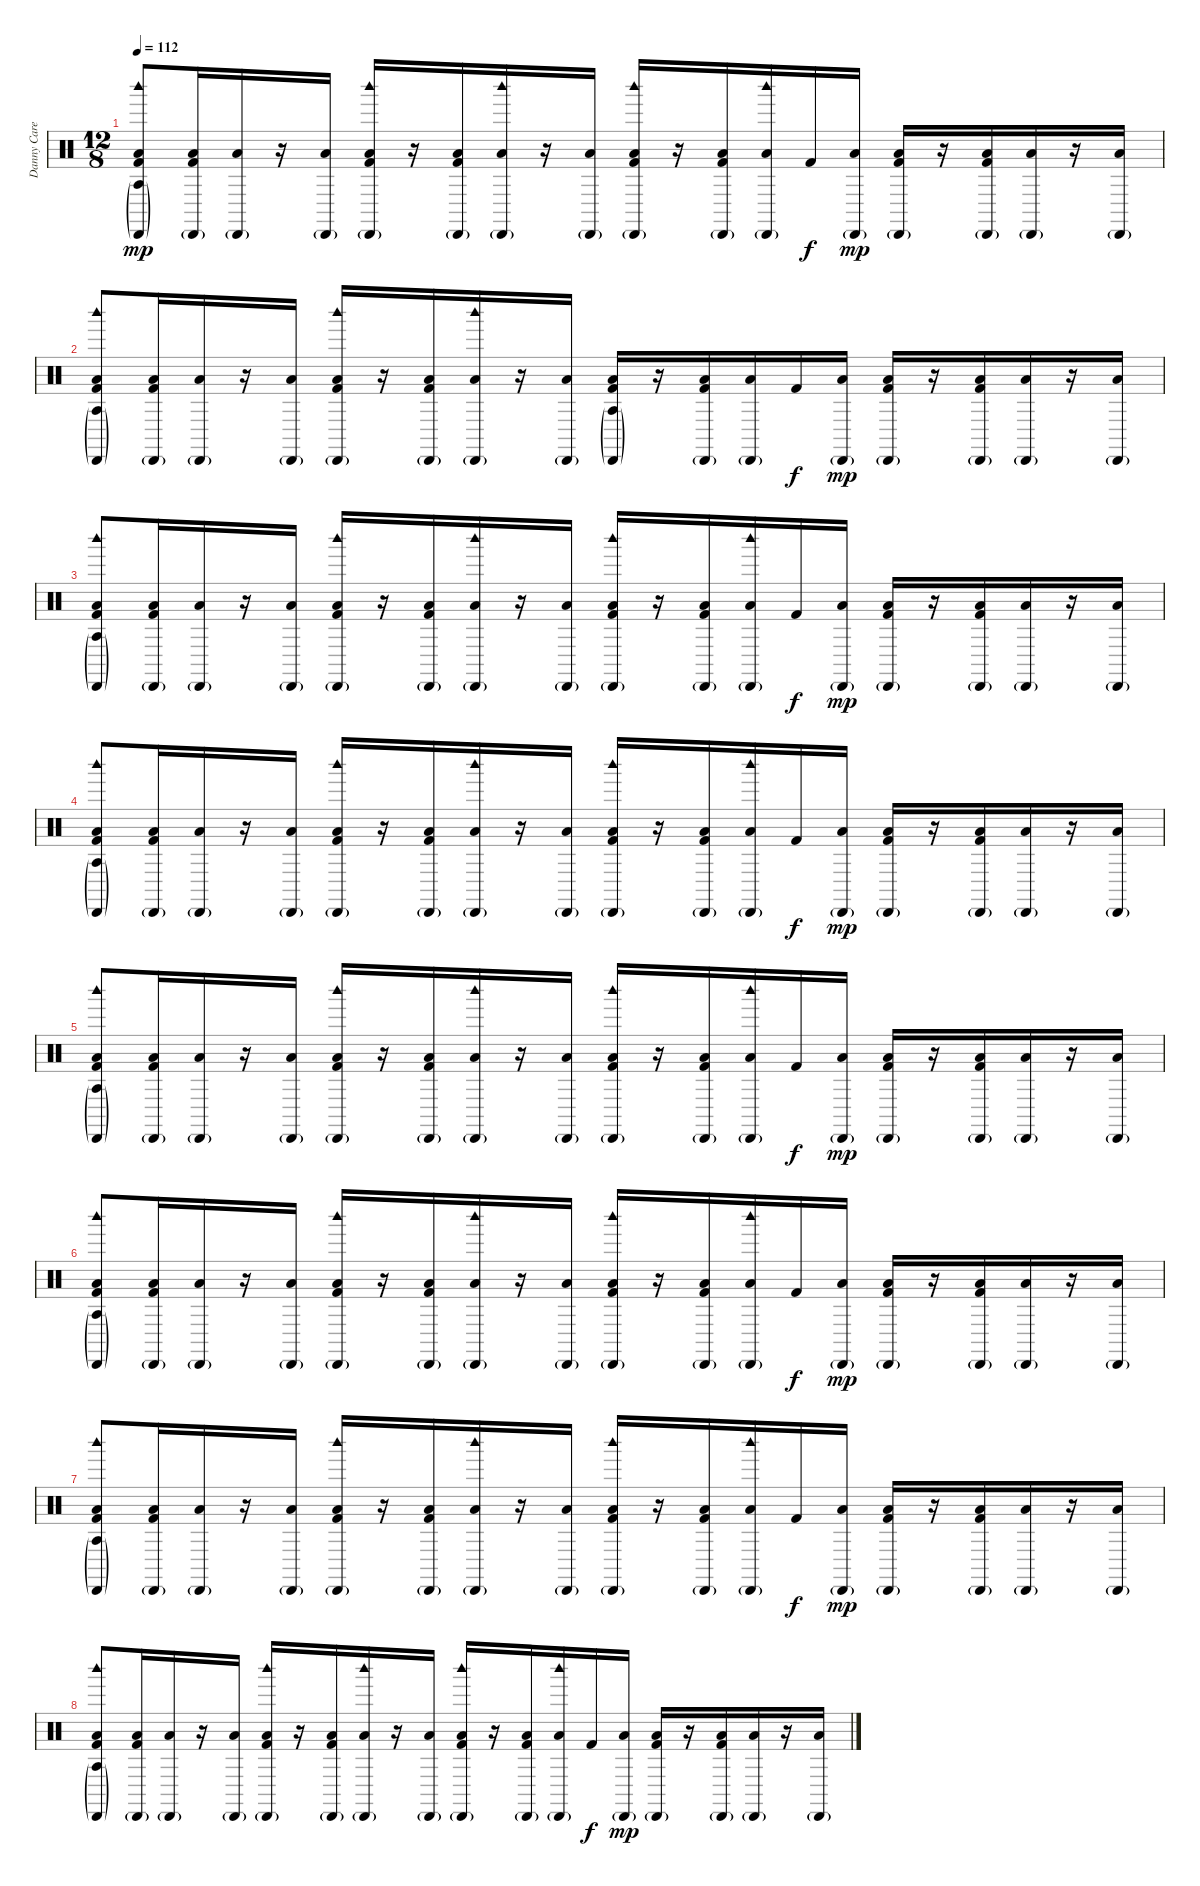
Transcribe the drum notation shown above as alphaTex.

\track ("Danny Carey" "Danny Care") {instrument percussion}
\staff {score}
\articulation defaults
\ts (12 8)
\tempo 112
\clef neutral
\ks c
("Low Floor Tom (hit)" "Agogo tow (hit)"{g} "Cabasa (hit)"{g} "Woodblock high (hit)" "Kick (hit) 2").8{dy mp} ("Low Floor Tom (hit)" "Cabasa (hit)"{g} "Kick (hit) 2").16 ("Low Floor Tom (hit)" "Cabasa (hit)"{g}).16 r.16 ("Low Floor Tom (hit)" "Cabasa (hit)"{g}).16 ("Low Floor Tom (hit)" "Cabasa (hit)"{g} "Woodblock high (hit)" "Kick (hit) 2").16 r.16 ("Low Floor Tom (hit)" "Cabasa (hit)"{g} "Kick (hit) 2").16 ("Low Floor Tom (hit)" "Cabasa (hit)"{g} "Woodblock high (hit)").16 r.16 ("Low Floor Tom (hit)" "Cabasa (hit)"{g}).16 ("Low Floor Tom (hit)" "Cabasa (hit)"{g} "Woodblock high (hit)" "Kick (hit) 2").16 r.16 ("Low Floor Tom (hit)" "Cabasa (hit)"{g} "Kick (hit) 2").16 ("Low Floor Tom (hit)" "Cabasa (hit)"{g} "Woodblock high (hit)").16 "Kick (hit) 2".16{dy f} ("Low Floor Tom (hit)" "Cabasa (hit)"{g}).16{dy mp} ("Low Floor Tom (hit)" "Cabasa (hit)"{g} "Kick (hit) 2").16 r.16 ("Low Floor Tom (hit)" "Cabasa (hit)"{g} "Kick (hit) 2").16 ("Low Floor Tom (hit)" "Cabasa (hit)"{g}).16 r.16 ("Low Floor Tom (hit)" "Cabasa (hit)"{g}).16 |
("Low Floor Tom (hit)" "Agogo tow (hit)"{g} "Cabasa (hit)"{g} "Woodblock high (hit)" "Kick (hit) 2").8 ("Low Floor Tom (hit)" "Cabasa (hit)"{g} "Kick (hit) 2").16 ("Low Floor Tom (hit)" "Cabasa (hit)"{g}).16 r.16 ("Low Floor Tom (hit)" "Cabasa (hit)"{g}).16 ("Low Floor Tom (hit)" "Cabasa (hit)"{g} "Woodblock high (hit)" "Kick (hit) 2").16 r.16 ("Low Floor Tom (hit)" "Cabasa (hit)"{g} "Kick (hit) 2").16 ("Low Floor Tom (hit)" "Cabasa (hit)"{g} "Woodblock high (hit)").16 r.16 ("Low Floor Tom (hit)" "Cabasa (hit)"{g}).16 ("Low Floor Tom (hit)" "Agogo tow (hit)"{g} "Cabasa (hit)"{g} "Kick (hit) 2").16 r.16 ("Low Floor Tom (hit)" "Cabasa (hit)"{g} "Kick (hit) 2").16 ("Low Floor Tom (hit)" "Cabasa (hit)"{g}).16 "Kick (hit) 2".16{dy f} ("Low Floor Tom (hit)" "Cabasa (hit)"{g}).16{dy mp} ("Low Floor Tom (hit)" "Cabasa (hit)"{g} "Kick (hit) 2").16 r.16 ("Low Floor Tom (hit)" "Cabasa (hit)"{g} "Kick (hit) 2").16 ("Low Floor Tom (hit)" "Cabasa (hit)"{g}).16 r.16 ("Low Floor Tom (hit)" "Cabasa (hit)"{g}).16 |
("Low Floor Tom (hit)" "Agogo tow (hit)"{g} "Cabasa (hit)"{g} "Woodblock high (hit)" "Kick (hit) 2").8 ("Low Floor Tom (hit)" "Cabasa (hit)"{g} "Kick (hit) 2").16 ("Low Floor Tom (hit)" "Cabasa (hit)"{g}).16 r.16 ("Low Floor Tom (hit)" "Cabasa (hit)"{g}).16 ("Low Floor Tom (hit)" "Cabasa (hit)"{g} "Woodblock high (hit)" "Kick (hit) 2").16 r.16 ("Low Floor Tom (hit)" "Cabasa (hit)"{g} "Kick (hit) 2").16 ("Low Floor Tom (hit)" "Cabasa (hit)"{g} "Woodblock high (hit)").16 r.16 ("Low Floor Tom (hit)" "Cabasa (hit)"{g}).16 ("Low Floor Tom (hit)" "Cabasa (hit)"{g} "Woodblock high (hit)" "Kick (hit) 2").16 r.16 ("Low Floor Tom (hit)" "Cabasa (hit)"{g} "Kick (hit) 2").16 ("Low Floor Tom (hit)" "Cabasa (hit)"{g} "Woodblock high (hit)").16 "Kick (hit) 2".16{dy f} ("Low Floor Tom (hit)" "Cabasa (hit)"{g}).16{dy mp} ("Low Floor Tom (hit)" "Cabasa (hit)"{g} "Kick (hit) 2").16 r.16 ("Low Floor Tom (hit)" "Cabasa (hit)"{g} "Kick (hit) 2").16 ("Low Floor Tom (hit)" "Cabasa (hit)"{g}).16 r.16 ("Low Floor Tom (hit)" "Cabasa (hit)"{g}).16 |
("Low Floor Tom (hit)" "Agogo tow (hit)"{g} "Cabasa (hit)"{g} "Woodblock high (hit)" "Kick (hit) 2").8 ("Low Floor Tom (hit)" "Cabasa (hit)"{g} "Kick (hit) 2").16 ("Low Floor Tom (hit)" "Cabasa (hit)"{g}).16 r.16 ("Low Floor Tom (hit)" "Cabasa (hit)"{g}).16 ("Low Floor Tom (hit)" "Cabasa (hit)"{g} "Woodblock high (hit)" "Kick (hit) 2").16 r.16 ("Low Floor Tom (hit)" "Cabasa (hit)"{g} "Kick (hit) 2").16 ("Low Floor Tom (hit)" "Cabasa (hit)"{g} "Woodblock high (hit)").16 r.16 ("Low Floor Tom (hit)" "Cabasa (hit)"{g}).16 ("Low Floor Tom (hit)" "Cabasa (hit)"{g} "Woodblock high (hit)" "Kick (hit) 2").16 r.16 ("Low Floor Tom (hit)" "Cabasa (hit)"{g} "Kick (hit) 2").16 ("Low Floor Tom (hit)" "Cabasa (hit)"{g} "Woodblock high (hit)").16 "Kick (hit) 2".16{dy f} ("Low Floor Tom (hit)" "Cabasa (hit)"{g}).16{dy mp} ("Low Floor Tom (hit)" "Cabasa (hit)"{g} "Kick (hit) 2").16 r.16 ("Low Floor Tom (hit)" "Cabasa (hit)"{g} "Kick (hit) 2").16 ("Low Floor Tom (hit)" "Cabasa (hit)"{g}).16 r.16 ("Low Floor Tom (hit)" "Cabasa (hit)"{g}).16 |
("Low Floor Tom (hit)" "Agogo tow (hit)"{g} "Cabasa (hit)"{g} "Woodblock high (hit)" "Kick (hit) 2").8 ("Low Floor Tom (hit)" "Cabasa (hit)"{g} "Kick (hit) 2").16 ("Low Floor Tom (hit)" "Cabasa (hit)"{g}).16 r.16 ("Low Floor Tom (hit)" "Cabasa (hit)"{g}).16 ("Low Floor Tom (hit)" "Cabasa (hit)"{g} "Woodblock high (hit)" "Kick (hit) 2").16 r.16 ("Low Floor Tom (hit)" "Cabasa (hit)"{g} "Kick (hit) 2").16 ("Low Floor Tom (hit)" "Cabasa (hit)"{g} "Woodblock high (hit)").16 r.16 ("Low Floor Tom (hit)" "Cabasa (hit)"{g}).16 ("Low Floor Tom (hit)" "Cabasa (hit)"{g} "Woodblock high (hit)" "Kick (hit) 2").16 r.16 ("Low Floor Tom (hit)" "Cabasa (hit)"{g} "Kick (hit) 2").16 ("Low Floor Tom (hit)" "Cabasa (hit)"{g} "Woodblock high (hit)").16 "Kick (hit) 2".16{dy f} ("Low Floor Tom (hit)" "Cabasa (hit)"{g}).16{dy mp} ("Low Floor Tom (hit)" "Cabasa (hit)"{g} "Kick (hit) 2").16 r.16 ("Low Floor Tom (hit)" "Cabasa (hit)"{g} "Kick (hit) 2").16 ("Low Floor Tom (hit)" "Cabasa (hit)"{g}).16 r.16 ("Low Floor Tom (hit)" "Cabasa (hit)"{g}).16 |
("Low Floor Tom (hit)" "Agogo tow (hit)"{g} "Cabasa (hit)"{g} "Woodblock high (hit)" "Kick (hit) 2").8 ("Low Floor Tom (hit)" "Cabasa (hit)"{g} "Kick (hit) 2").16 ("Low Floor Tom (hit)" "Cabasa (hit)"{g}).16 r.16 ("Low Floor Tom (hit)" "Cabasa (hit)"{g}).16 ("Low Floor Tom (hit)" "Cabasa (hit)"{g} "Woodblock high (hit)" "Kick (hit) 2").16 r.16 ("Low Floor Tom (hit)" "Cabasa (hit)"{g} "Kick (hit) 2").16 ("Low Floor Tom (hit)" "Cabasa (hit)"{g} "Woodblock high (hit)").16 r.16 ("Low Floor Tom (hit)" "Cabasa (hit)"{g}).16 ("Low Floor Tom (hit)" "Cabasa (hit)"{g} "Woodblock high (hit)" "Kick (hit) 2").16 r.16 ("Low Floor Tom (hit)" "Cabasa (hit)"{g} "Kick (hit) 2").16 ("Low Floor Tom (hit)" "Cabasa (hit)"{g} "Woodblock high (hit)").16 "Kick (hit) 2".16{dy f} ("Low Floor Tom (hit)" "Cabasa (hit)"{g}).16{dy mp} ("Low Floor Tom (hit)" "Cabasa (hit)"{g} "Kick (hit) 2").16 r.16 ("Low Floor Tom (hit)" "Cabasa (hit)"{g} "Kick (hit) 2").16 ("Low Floor Tom (hit)" "Cabasa (hit)"{g}).16 r.16 ("Low Floor Tom (hit)" "Cabasa (hit)"{g}).16 |
("Low Floor Tom (hit)" "Agogo tow (hit)"{g} "Cabasa (hit)"{g} "Woodblock high (hit)" "Kick (hit) 2").8 ("Low Floor Tom (hit)" "Cabasa (hit)"{g} "Kick (hit) 2").16 ("Low Floor Tom (hit)" "Cabasa (hit)"{g}).16 r.16 ("Low Floor Tom (hit)" "Cabasa (hit)"{g}).16 ("Low Floor Tom (hit)" "Cabasa (hit)"{g} "Woodblock high (hit)" "Kick (hit) 2").16 r.16 ("Low Floor Tom (hit)" "Cabasa (hit)"{g} "Kick (hit) 2").16 ("Low Floor Tom (hit)" "Cabasa (hit)"{g} "Woodblock high (hit)").16 r.16 ("Low Floor Tom (hit)" "Cabasa (hit)"{g}).16 ("Low Floor Tom (hit)" "Cabasa (hit)"{g} "Woodblock high (hit)" "Kick (hit) 2").16 r.16 ("Low Floor Tom (hit)" "Cabasa (hit)"{g} "Kick (hit) 2").16 ("Low Floor Tom (hit)" "Cabasa (hit)"{g} "Woodblock high (hit)").16 "Kick (hit) 2".16{dy f} ("Low Floor Tom (hit)" "Cabasa (hit)"{g}).16{dy mp} ("Low Floor Tom (hit)" "Cabasa (hit)"{g} "Kick (hit) 2").16 r.16 ("Low Floor Tom (hit)" "Cabasa (hit)"{g} "Kick (hit) 2").16 ("Low Floor Tom (hit)" "Cabasa (hit)"{g}).16 r.16 ("Low Floor Tom (hit)" "Cabasa (hit)"{g}).16 |
("Low Floor Tom (hit)" "Agogo tow (hit)"{g} "Cabasa (hit)"{g} "Woodblock high (hit)" "Kick (hit) 2").8 ("Low Floor Tom (hit)" "Cabasa (hit)"{g} "Kick (hit) 2").16 ("Low Floor Tom (hit)" "Cabasa (hit)"{g}).16 r.16 ("Low Floor Tom (hit)" "Cabasa (hit)"{g}).16 ("Low Floor Tom (hit)" "Cabasa (hit)"{g} "Woodblock high (hit)" "Kick (hit) 2").16 r.16 ("Low Floor Tom (hit)" "Cabasa (hit)"{g} "Kick (hit) 2").16 ("Low Floor Tom (hit)" "Cabasa (hit)"{g} "Woodblock high (hit)").16 r.16 ("Low Floor Tom (hit)" "Cabasa (hit)"{g}).16 ("Low Floor Tom (hit)" "Cabasa (hit)"{g} "Woodblock high (hit)" "Kick (hit) 2").16 r.16 ("Low Floor Tom (hit)" "Cabasa (hit)"{g} "Kick (hit) 2").16 ("Low Floor Tom (hit)" "Cabasa (hit)"{g} "Woodblock high (hit)").16 "Kick (hit) 2".16{dy f} ("Low Floor Tom (hit)" "Cabasa (hit)"{g}).16{dy mp} ("Low Floor Tom (hit)" "Cabasa (hit)"{g} "Kick (hit) 2").16 r.16 ("Low Floor Tom (hit)" "Cabasa (hit)"{g} "Kick (hit) 2").16 ("Low Floor Tom (hit)" "Cabasa (hit)"{g}).16 r.16 ("Low Floor Tom (hit)" "Cabasa (hit)"{g}).16
